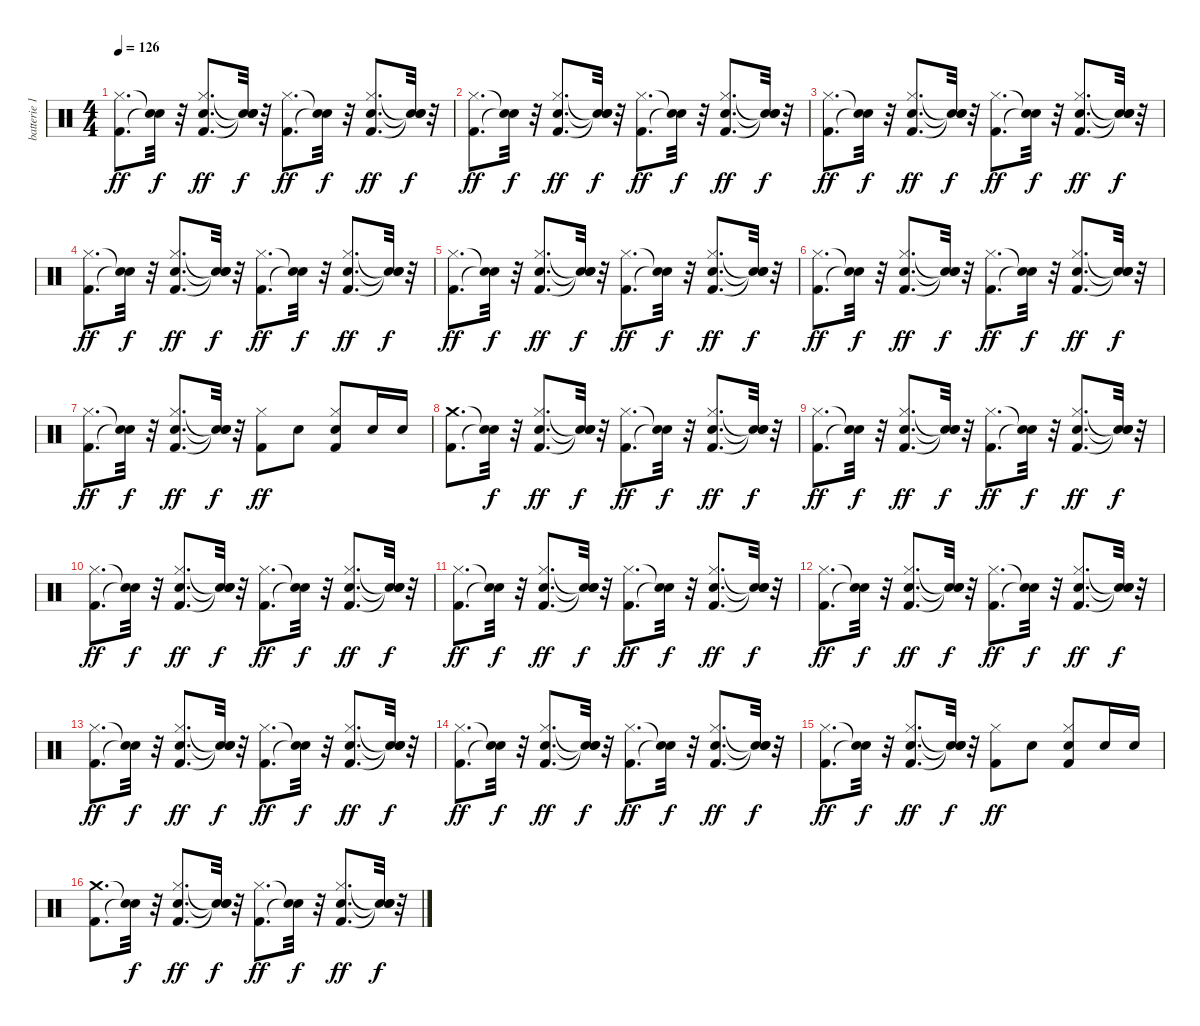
\track ("batterie 1" "batterie 1") {instrument percussion}
\staff {score}
\articulation defaults
\ts (4 4)
\tempo 126
\clef neutral
\ks c
("Kick (hit) 2" "Hi-Hat (closed)").8{d dy ff} ("Snare (hit)"{t} "Snare (hit)"{t}).32{dy f} r.32 ("Kick (hit) 2" "Snare (hit) 2" "Hi-Hat (closed)").8{d dy ff} ("Snare (hit)"{t} "Snare (hit)"{t} "Snare (hit)"{t}).32{dy f} r.32 ("Kick (hit) 2" "Hi-Hat (closed)").8{d dy ff} ("Snare (hit)"{t} "Snare (hit)"{t}).32{dy f} r.32 ("Kick (hit) 2" "Snare (hit) 2" "Hi-Hat (closed)").8{d dy ff} ("Snare (hit)"{t} "Snare (hit)"{t} "Snare (hit)"{t}).32{dy f} r.32 |
("Kick (hit) 2" "Hi-Hat (closed)").8{d dy ff} ("Snare (hit)"{t} "Snare (hit)"{t}).32{dy f} r.32 ("Kick (hit) 2" "Snare (hit) 2" "Hi-Hat (closed)").8{d dy ff} ("Snare (hit)"{t} "Snare (hit)"{t} "Snare (hit)"{t}).32{dy f} r.32 ("Kick (hit) 2" "Hi-Hat (closed)").8{d dy ff} ("Snare (hit)"{t} "Snare (hit)"{t}).32{dy f} r.32 ("Kick (hit) 2" "Snare (hit) 2" "Hi-Hat (closed)").8{d dy ff} ("Snare (hit)"{t} "Snare (hit)"{t} "Snare (hit)"{t}).32{dy f} r.32 |
("Kick (hit) 2" "Hi-Hat (closed)").8{d dy ff} ("Snare (hit)"{t} "Snare (hit)"{t}).32{dy f} r.32 ("Kick (hit) 2" "Snare (hit) 2" "Hi-Hat (closed)").8{d dy ff} ("Snare (hit)"{t} "Snare (hit)"{t} "Snare (hit)"{t}).32{dy f} r.32 ("Kick (hit) 2" "Hi-Hat (closed)").8{d dy ff} ("Snare (hit)"{t} "Snare (hit)"{t}).32{dy f} r.32 ("Kick (hit) 2" "Snare (hit) 2" "Hi-Hat (closed)").8{d dy ff} ("Snare (hit)"{t} "Snare (hit)"{t} "Snare (hit)"{t}).32{dy f} r.32 |
("Kick (hit) 2" "Hi-Hat (closed)").8{d dy ff} ("Snare (hit)"{t} "Snare (hit)"{t}).32{dy f} r.32 ("Kick (hit) 2" "Snare (hit) 2" "Hi-Hat (closed)").8{d dy ff} ("Snare (hit)"{t} "Snare (hit)"{t} "Snare (hit)"{t}).32{dy f} r.32 ("Kick (hit) 2" "Hi-Hat (closed)").8{d dy ff} ("Snare (hit)"{t} "Snare (hit)"{t}).32{dy f} r.32 ("Kick (hit) 2" "Snare (hit) 2" "Hi-Hat (closed)").8{d dy ff} ("Snare (hit)"{t} "Snare (hit)"{t} "Snare (hit)"{t}).32{dy f} r.32 |
("Kick (hit) 2" "Hi-Hat (closed)").8{d dy ff} ("Snare (hit)"{t} "Snare (hit)"{t}).32{dy f} r.32 ("Kick (hit) 2" "Snare (hit) 2" "Hi-Hat (closed)").8{d dy ff} ("Snare (hit)"{t} "Snare (hit)"{t} "Snare (hit)"{t}).32{dy f} r.32 ("Kick (hit) 2" "Hi-Hat (closed)").8{d dy ff} ("Snare (hit)"{t} "Snare (hit)"{t}).32{dy f} r.32 ("Kick (hit) 2" "Snare (hit) 2" "Hi-Hat (closed)").8{d dy ff} ("Snare (hit)"{t} "Snare (hit)"{t} "Snare (hit)"{t}).32{dy f} r.32 |
("Kick (hit) 2" "Hi-Hat (closed)").8{d dy ff} ("Snare (hit)"{t} "Snare (hit)"{t}).32{dy f} r.32 ("Kick (hit) 2" "Snare (hit) 2" "Hi-Hat (closed)").8{d dy ff} ("Snare (hit)"{t} "Snare (hit)"{t} "Snare (hit)"{t}).32{dy f} r.32 ("Kick (hit) 2" "Hi-Hat (closed)").8{d dy ff} ("Snare (hit)"{t} "Snare (hit)"{t}).32{dy f} r.32 ("Kick (hit) 2" "Snare (hit) 2" "Hi-Hat (closed)").8{d dy ff} ("Snare (hit)"{t} "Snare (hit)"{t} "Snare (hit)"{t}).32{dy f} r.32 |
("Kick (hit) 2" "Hi-Hat (closed)").8{d dy ff} ("Snare (hit)"{t} "Snare (hit)"{t}).32{dy f} r.32 ("Kick (hit) 2" "Snare (hit) 2" "Hi-Hat (closed)").8{d dy ff} ("Snare (hit)"{t} "Snare (hit)"{t} "Snare (hit)"{t}).32{dy f} r.32 ("Kick (hit) 2" "Hi-Hat (closed)").8{dy ff} "Snare (hit) 2".8 ("Kick (hit) 2" "Snare (hit) 2" "Hi-Hat (closed)").8 "Snare (hit) 2".16 "Snare (hit) 2".16 |
("Kick (hit) 2" "Crash medium (hit)").8{d} ("Snare (hit)"{t} "Snare (hit)"{t}).32{dy f} r.32 ("Kick (hit) 2" "Snare (hit) 2" "Hi-Hat (closed)").8{d dy ff} ("Snare (hit)"{t} "Snare (hit)"{t} "Snare (hit)"{t}).32{dy f} r.32 ("Kick (hit) 2" "Hi-Hat (closed)").8{d dy ff} ("Snare (hit)"{t} "Snare (hit)"{t}).32{dy f} r.32 ("Kick (hit) 2" "Snare (hit) 2" "Hi-Hat (closed)").8{d dy ff} ("Snare (hit)"{t} "Snare (hit)"{t} "Snare (hit)"{t}).32{dy f} r.32 |
("Kick (hit) 2" "Hi-Hat (closed)").8{d dy ff} ("Snare (hit)"{t} "Snare (hit)"{t}).32{dy f} r.32 ("Kick (hit) 2" "Snare (hit) 2" "Hi-Hat (closed)").8{d dy ff} ("Snare (hit)"{t} "Snare (hit)"{t} "Snare (hit)"{t}).32{dy f} r.32 ("Kick (hit) 2" "Hi-Hat (closed)").8{d dy ff} ("Snare (hit)"{t} "Snare (hit)"{t}).32{dy f} r.32 ("Kick (hit) 2" "Snare (hit) 2" "Hi-Hat (closed)").8{d dy ff} ("Snare (hit)"{t} "Snare (hit)"{t} "Snare (hit)"{t}).32{dy f} r.32 |
("Kick (hit) 2" "Hi-Hat (closed)").8{d dy ff} ("Snare (hit)"{t} "Snare (hit)"{t}).32{dy f} r.32 ("Kick (hit) 2" "Snare (hit) 2" "Hi-Hat (closed)").8{d dy ff} ("Snare (hit)"{t} "Snare (hit)"{t} "Snare (hit)"{t}).32{dy f} r.32 ("Kick (hit) 2" "Hi-Hat (closed)").8{d dy ff} ("Snare (hit)"{t} "Snare (hit)"{t}).32{dy f} r.32 ("Kick (hit) 2" "Snare (hit) 2" "Hi-Hat (closed)").8{d dy ff} ("Snare (hit)"{t} "Snare (hit)"{t} "Snare (hit)"{t}).32{dy f} r.32 |
("Kick (hit) 2" "Hi-Hat (closed)").8{d dy ff} ("Snare (hit)"{t} "Snare (hit)"{t}).32{dy f} r.32 ("Kick (hit) 2" "Snare (hit) 2" "Hi-Hat (closed)").8{d dy ff} ("Snare (hit)"{t} "Snare (hit)"{t} "Snare (hit)"{t}).32{dy f} r.32 ("Kick (hit) 2" "Hi-Hat (closed)").8{d dy ff} ("Snare (hit)"{t} "Snare (hit)"{t}).32{dy f} r.32 ("Kick (hit) 2" "Snare (hit) 2" "Hi-Hat (closed)").8{d dy ff} ("Snare (hit)"{t} "Snare (hit)"{t} "Snare (hit)"{t}).32{dy f} r.32 |
("Kick (hit) 2" "Hi-Hat (closed)").8{d dy ff} ("Snare (hit)"{t} "Snare (hit)"{t}).32{dy f} r.32 ("Kick (hit) 2" "Snare (hit) 2" "Hi-Hat (closed)").8{d dy ff} ("Snare (hit)"{t} "Snare (hit)"{t} "Snare (hit)"{t}).32{dy f} r.32 ("Kick (hit) 2" "Hi-Hat (closed)").8{d dy ff} ("Snare (hit)"{t} "Snare (hit)"{t}).32{dy f} r.32 ("Kick (hit) 2" "Snare (hit) 2" "Hi-Hat (closed)").8{d dy ff} ("Snare (hit)"{t} "Snare (hit)"{t} "Snare (hit)"{t}).32{dy f} r.32 |
("Kick (hit) 2" "Hi-Hat (closed)").8{d dy ff} ("Snare (hit)"{t} "Snare (hit)"{t}).32{dy f} r.32 ("Kick (hit) 2" "Snare (hit) 2" "Hi-Hat (closed)").8{d dy ff} ("Snare (hit)"{t} "Snare (hit)"{t} "Snare (hit)"{t}).32{dy f} r.32 ("Kick (hit) 2" "Hi-Hat (closed)").8{d dy ff} ("Snare (hit)"{t} "Snare (hit)"{t}).32{dy f} r.32 ("Kick (hit) 2" "Snare (hit) 2" "Hi-Hat (closed)").8{d dy ff} ("Snare (hit)"{t} "Snare (hit)"{t} "Snare (hit)"{t}).32{dy f} r.32 |
("Kick (hit) 2" "Hi-Hat (closed)").8{d dy ff} ("Snare (hit)"{t} "Snare (hit)"{t}).32{dy f} r.32 ("Kick (hit) 2" "Snare (hit) 2" "Hi-Hat (closed)").8{d dy ff} ("Snare (hit)"{t} "Snare (hit)"{t} "Snare (hit)"{t}).32{dy f} r.32 ("Kick (hit) 2" "Hi-Hat (closed)").8{d dy ff} ("Snare (hit)"{t} "Snare (hit)"{t}).32{dy f} r.32 ("Kick (hit) 2" "Snare (hit) 2" "Hi-Hat (closed)").8{d dy ff} ("Snare (hit)"{t} "Snare (hit)"{t} "Snare (hit)"{t}).32{dy f} r.32 |
("Kick (hit) 2" "Hi-Hat (closed)").8{d dy ff} ("Snare (hit)"{t} "Snare (hit)"{t}).32{dy f} r.32 ("Kick (hit) 2" "Snare (hit) 2" "Hi-Hat (closed)").8{d dy ff} ("Snare (hit)"{t} "Snare (hit)"{t} "Snare (hit)"{t}).32{dy f} r.32 ("Kick (hit) 2" "Hi-Hat (closed)").8{dy ff} "Snare (hit) 2".8 ("Kick (hit) 2" "Snare (hit) 2" "Hi-Hat (closed)").8 "Snare (hit) 2".16 "Snare (hit) 2".16 |
("Kick (hit) 2" "Crash medium (hit)").8{d} ("Snare (hit)"{t} "Snare (hit)"{t}).32{dy f} r.32 ("Kick (hit) 2" "Snare (hit) 2" "Hi-Hat (closed)").8{d dy ff} ("Snare (hit)"{t} "Snare (hit)"{t} "Snare (hit)"{t}).32{dy f} r.32 ("Kick (hit) 2" "Hi-Hat (closed)").8{d dy ff} ("Snare (hit)"{t} "Snare (hit)"{t}).32{dy f} r.32 ("Kick (hit) 2" "Snare (hit) 2" "Hi-Hat (closed)").8{d dy ff} ("Snare (hit)"{t} "Snare (hit)"{t} "Snare (hit)"{t}).32{dy f} r.32
